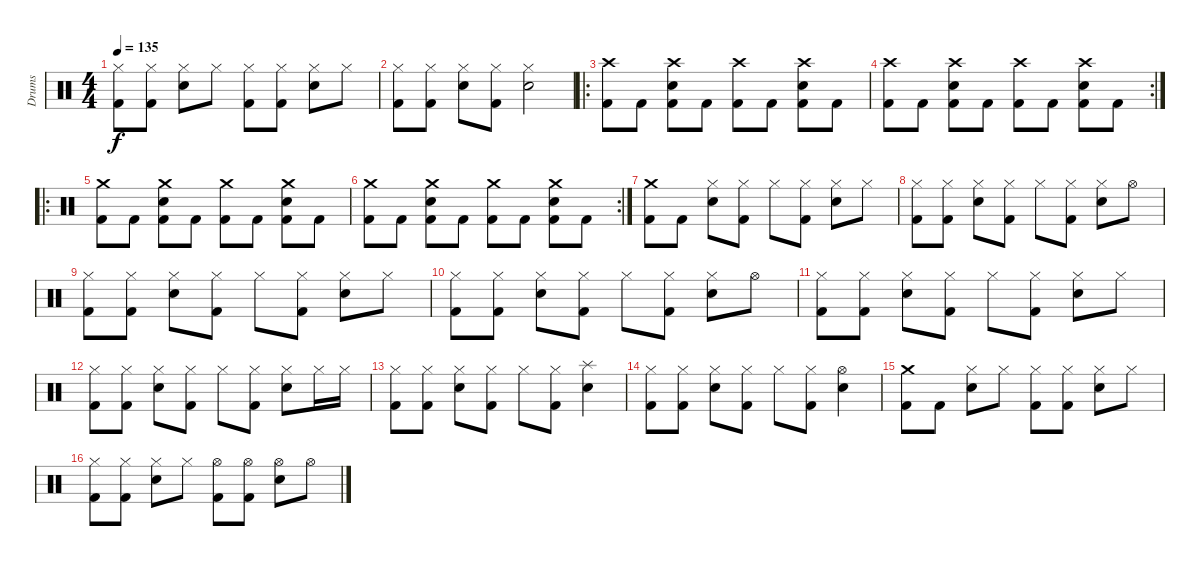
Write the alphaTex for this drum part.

\track ("Drums" "Drums") {instrument percussion}
\staff {score}
\articulation defaults
\ts (4 4)
\tempo 135
\clef neutral
\ks c
("Hi-Hat (closed)" "Kick (hit) 2").8{dy f} ("Hi-Hat (closed)" "Kick (hit) 2").8 ("Hi-Hat (closed)" "Electric Snare (hit)").8 "Hi-Hat (closed)".8 ("Hi-Hat (closed)" "Kick (hit) 2").8 ("Hi-Hat (closed)" "Kick (hit) 2").8 ("Hi-Hat (closed)" "Electric Snare (hit)").8 "Hi-Hat (closed)".8 |
("Hi-Hat (closed)" "Kick (hit) 2").8 ("Hi-Hat (closed)" "Kick (hit) 2").8 ("Hi-Hat (closed)" "Electric Snare (hit)").8 ("Hi-Hat (closed)" "Kick (hit) 2").8 ("Hi-Hat (closed)" "Electric Snare (hit)").2 |
\ro
("Crash high (hit)" "Kick (hit) 2").8 "Kick (hit) 2".8 ("Crash high (hit)" "Electric Snare (hit)" "Kick (hit) 2").8 "Kick (hit) 2".8 ("Crash high (hit)" "Kick (hit) 2").8 "Kick (hit) 2".8 ("Crash high (hit)" "Electric Snare (hit)" "Kick (hit) 2").8 "Kick (hit) 2".8 |
\rc 2
("Crash high (hit)" "Kick (hit) 2").8 "Kick (hit) 2".8 ("Crash high (hit)" "Electric Snare (hit)" "Kick (hit) 2").8 "Kick (hit) 2".8 ("Crash high (hit)" "Kick (hit) 2").8 "Kick (hit) 2".8 ("Crash high (hit)" "Electric Snare (hit)" "Kick (hit) 2").8 "Kick (hit) 2".8 |
\ro
("Crash medium (hit)" "Kick (hit) 2").8 "Kick (hit) 2".8 ("Crash medium (hit)" "Electric Snare (hit)" "Kick (hit) 2").8 "Kick (hit) 2".8 ("Crash medium (hit)" "Kick (hit) 2").8 "Kick (hit) 2".8 ("Crash medium (hit)" "Electric Snare (hit)" "Kick (hit) 2").8 "Kick (hit) 2".8 |
\rc 2
("Crash medium (hit)" "Kick (hit) 2").8 "Kick (hit) 2".8 ("Crash medium (hit)" "Electric Snare (hit)" "Kick (hit) 2").8 "Kick (hit) 2".8 ("Crash medium (hit)" "Kick (hit) 2").8 "Kick (hit) 2".8 ("Crash medium (hit)" "Electric Snare (hit)" "Kick (hit) 2").8 "Kick (hit) 2".8 |
("Crash medium (hit)" "Kick (hit) 2").8 "Kick (hit) 2".8 ("Hi-Hat (closed)" "Electric Snare (hit)").8 ("Hi-Hat (closed)" "Kick (hit) 2").8 "Hi-Hat (closed)".8 ("Hi-Hat (closed)" "Kick (hit) 2").8 ("Hi-Hat (closed)" "Electric Snare (hit)").8 "Hi-Hat (closed)".8 |
("Hi-Hat (closed)" "Kick (hit) 2").8 ("Hi-Hat (closed)" "Kick (hit) 2").8 ("Hi-Hat (closed)" "Electric Snare (hit)").8 ("Hi-Hat (closed)" "Kick (hit) 2").8 "Hi-Hat (closed)".8 ("Hi-Hat (closed)" "Kick (hit) 2").8 ("Hi-Hat (closed)" "Electric Snare (hit)").8 "Hi-Hat (open)".8 |
("Hi-Hat (closed)" "Kick (hit) 2").8 ("Hi-Hat (closed)" "Kick (hit) 2").8 ("Hi-Hat (closed)" "Electric Snare (hit)").8 ("Hi-Hat (closed)" "Kick (hit) 2").8 "Hi-Hat (closed)".8 ("Hi-Hat (closed)" "Kick (hit) 2").8 ("Hi-Hat (closed)" "Electric Snare (hit)").8 "Hi-Hat (closed)".8 |
("Hi-Hat (closed)" "Kick (hit) 2").8 ("Hi-Hat (closed)" "Kick (hit) 2").8 ("Hi-Hat (closed)" "Electric Snare (hit)").8 ("Hi-Hat (closed)" "Kick (hit) 2").8 "Hi-Hat (closed)".8 ("Hi-Hat (closed)" "Kick (hit) 2").8 ("Hi-Hat (closed)" "Electric Snare (hit)").8 "Hi-Hat (open)".8 |
("Hi-Hat (closed)" "Kick (hit) 2").8 ("Hi-Hat (closed)" "Kick (hit) 2").8 ("Hi-Hat (closed)" "Electric Snare (hit)").8 ("Hi-Hat (closed)" "Kick (hit) 2").8 "Hi-Hat (closed)".8 ("Hi-Hat (closed)" "Kick (hit) 2").8 ("Hi-Hat (closed)" "Electric Snare (hit)").8 "Hi-Hat (closed)".8 |
("Hi-Hat (closed)" "Kick (hit) 2").8 ("Hi-Hat (closed)" "Kick (hit) 2").8 ("Hi-Hat (closed)" "Electric Snare (hit)").8 ("Hi-Hat (closed)" "Kick (hit) 2").8 "Hi-Hat (closed)".8 ("Hi-Hat (closed)" "Kick (hit) 2").8 ("Hi-Hat (closed)" "Electric Snare (hit)").8 "Hi-Hat (closed)".16 "Hi-Hat (closed)".16 |
("Hi-Hat (closed)" "Kick (hit) 2").8 ("Hi-Hat (closed)" "Kick (hit) 2").8 ("Hi-Hat (closed)" "Electric Snare (hit)").8 ("Hi-Hat (closed)" "Kick (hit) 2").8 "Hi-Hat (closed)".8 ("Hi-Hat (closed)" "Kick (hit) 2").8 ("Splash (hit)" "Electric Snare (hit)").4 |
("Hi-Hat (closed)" "Kick (hit) 2").8 ("Hi-Hat (closed)" "Kick (hit) 2").8 ("Hi-Hat (closed)" "Electric Snare (hit)").8 ("Hi-Hat (closed)" "Kick (hit) 2").8 "Hi-Hat (closed)".8 ("Hi-Hat (closed)" "Kick (hit) 2").8 ("Hi-Hat (open)" "Electric Snare (hit)").4 |
("Crash medium (hit)" "Kick (hit) 2").8 "Kick (hit) 2".8 ("Hi-Hat (closed)" "Electric Snare (hit)").8 "Hi-Hat (closed)".8 ("Hi-Hat (closed)" "Kick (hit) 2").8 ("Hi-Hat (closed)" "Kick (hit) 2").8 ("Hi-Hat (closed)" "Electric Snare (hit)").8 "Hi-Hat (closed)".8 |
("Hi-Hat (closed)" "Kick (hit) 2").8 ("Hi-Hat (closed)" "Kick (hit) 2").8 ("Hi-Hat (closed)" "Electric Snare (hit)").8 "Hi-Hat (closed)".8 ("Hi-Hat (open)" "Kick (hit) 2").8 ("Hi-Hat (open)" "Kick (hit) 2").8 ("Hi-Hat (open)" "Electric Snare (hit)").8 "Hi-Hat (open)".8
